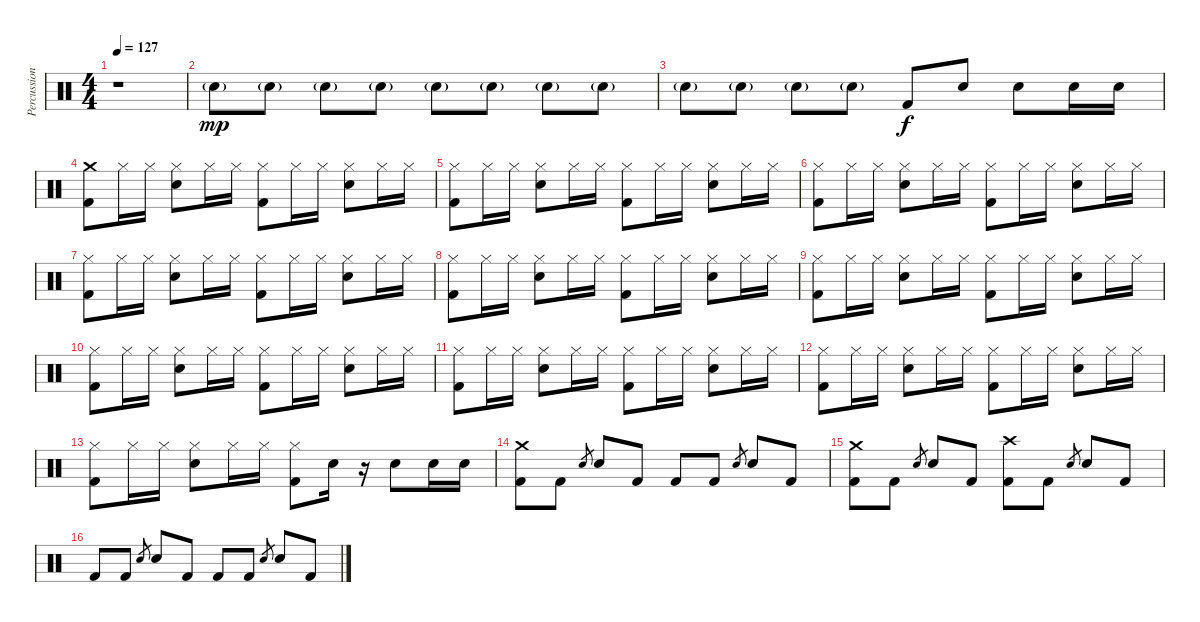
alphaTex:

\track ("Percussion" "Percussion") {instrument percussion}
\staff {score}
\articulation defaults
\ts (4 4)
\tempo 127
\clef neutral
\ks c
r.1{dy f} |
"Electric Snare (hit)"{g}.8{dy mp} "Electric Snare (hit)"{g}.8 "Electric Snare (hit)"{g}.8 "Electric Snare (hit)"{g}.8 "Electric Snare (hit)"{g}.8 "Electric Snare (hit)"{g}.8 "Electric Snare (hit)"{g}.8 "Electric Snare (hit)"{g}.8 |
"Electric Snare (hit)"{g}.8 "Electric Snare (hit)"{g}.8 "Electric Snare (hit)"{g}.8 "Electric Snare (hit)"{g}.8 "Kick (hit) 2".8{dy f} "Electric Snare (hit)".8 "Electric Snare (hit)".8 "Electric Snare (hit)".16 "Electric Snare (hit)".16 |
("Crash medium (hit)" "Kick (hit) 2").8 "Hi-Hat (closed)".16 "Hi-Hat (closed)".16 ("Hi-Hat (closed)" "Electric Snare (hit)").8 "Hi-Hat (closed)".16 "Hi-Hat (closed)".16 ("Hi-Hat (closed)" "Kick (hit) 2").8 "Hi-Hat (closed)".16 "Hi-Hat (closed)".16 ("Hi-Hat (closed)" "Electric Snare (hit)").8 "Hi-Hat (closed)".16 "Hi-Hat (closed)".16 |
("Hi-Hat (closed)" "Kick (hit) 2").8 "Hi-Hat (closed)".16 "Hi-Hat (closed)".16 ("Hi-Hat (closed)" "Electric Snare (hit)").8 "Hi-Hat (closed)".16 "Hi-Hat (closed)".16 ("Hi-Hat (closed)" "Kick (hit) 2").8 "Hi-Hat (closed)".16 "Hi-Hat (closed)".16 ("Hi-Hat (closed)" "Electric Snare (hit)").8 "Hi-Hat (closed)".16 "Hi-Hat (closed)".16 |
("Hi-Hat (closed)" "Kick (hit) 2").8 "Hi-Hat (closed)".16 "Hi-Hat (closed)".16 ("Hi-Hat (closed)" "Electric Snare (hit)").8 "Hi-Hat (closed)".16 "Hi-Hat (closed)".16 ("Hi-Hat (closed)" "Kick (hit) 2").8 "Hi-Hat (closed)".16 "Hi-Hat (closed)".16 ("Hi-Hat (closed)" "Electric Snare (hit)").8 "Hi-Hat (closed)".16 "Hi-Hat (closed)".16 |
("Hi-Hat (closed)" "Kick (hit) 2").8 "Hi-Hat (closed)".16 "Hi-Hat (closed)".16 ("Hi-Hat (closed)" "Electric Snare (hit)").8 "Hi-Hat (closed)".16 "Hi-Hat (closed)".16 ("Hi-Hat (closed)" "Kick (hit) 2").8 "Hi-Hat (closed)".16 "Hi-Hat (closed)".16 ("Hi-Hat (closed)" "Electric Snare (hit)").8 "Hi-Hat (closed)".16 "Hi-Hat (closed)".16 |
("Hi-Hat (closed)" "Kick (hit) 2").8 "Hi-Hat (closed)".16 "Hi-Hat (closed)".16 ("Hi-Hat (closed)" "Electric Snare (hit)").8 "Hi-Hat (closed)".16 "Hi-Hat (closed)".16 ("Hi-Hat (closed)" "Kick (hit) 2").8 "Hi-Hat (closed)".16 "Hi-Hat (closed)".16 ("Hi-Hat (closed)" "Electric Snare (hit)").8 "Hi-Hat (closed)".16 "Hi-Hat (closed)".16 |
("Hi-Hat (closed)" "Kick (hit) 2").8 "Hi-Hat (closed)".16 "Hi-Hat (closed)".16 ("Hi-Hat (closed)" "Electric Snare (hit)").8 "Hi-Hat (closed)".16 "Hi-Hat (closed)".16 ("Hi-Hat (closed)" "Kick (hit) 2").8 "Hi-Hat (closed)".16 "Hi-Hat (closed)".16 ("Hi-Hat (closed)" "Electric Snare (hit)").8 "Hi-Hat (closed)".16 "Hi-Hat (closed)".16 |
("Hi-Hat (closed)" "Kick (hit) 2").8 "Hi-Hat (closed)".16 "Hi-Hat (closed)".16 ("Hi-Hat (closed)" "Electric Snare (hit)").8 "Hi-Hat (closed)".16 "Hi-Hat (closed)".16 ("Hi-Hat (closed)" "Kick (hit) 2").8 "Hi-Hat (closed)".16 "Hi-Hat (closed)".16 ("Hi-Hat (closed)" "Electric Snare (hit)").8 "Hi-Hat (closed)".16 "Hi-Hat (closed)".16 |
("Hi-Hat (closed)" "Kick (hit) 2").8 "Hi-Hat (closed)".16 "Hi-Hat (closed)".16 ("Hi-Hat (closed)" "Electric Snare (hit)").8 "Hi-Hat (closed)".16 "Hi-Hat (closed)".16 ("Hi-Hat (closed)" "Kick (hit) 2").8 "Hi-Hat (closed)".16 "Hi-Hat (closed)".16 ("Hi-Hat (closed)" "Electric Snare (hit)").8 "Hi-Hat (closed)".16 "Hi-Hat (closed)".16 |
("Hi-Hat (closed)" "Kick (hit) 2").8 "Hi-Hat (closed)".16 "Hi-Hat (closed)".16 ("Hi-Hat (closed)" "Electric Snare (hit)").8 "Hi-Hat (closed)".16 "Hi-Hat (closed)".16 ("Hi-Hat (closed)" "Kick (hit) 2").8 "Hi-Hat (closed)".16 "Hi-Hat (closed)".16 ("Hi-Hat (closed)" "Electric Snare (hit)").8 "Hi-Hat (closed)".16 "Hi-Hat (closed)".16 |
("Hi-Hat (closed)" "Kick (hit) 2").8 "Hi-Hat (closed)".16 "Hi-Hat (closed)".16 ("Hi-Hat (closed)" "Electric Snare (hit)").8 "Hi-Hat (closed)".16 "Hi-Hat (closed)".16 ("Hi-Hat (closed)" "Kick (hit) 2").8 "Electric Snare (hit)".16 r.16 "Electric Snare (hit)".8 "Electric Snare (hit)".16 "Electric Snare (hit)".16 |
("Crash medium (hit)" "Kick (hit) 2").8 "Kick (hit) 2".8 "Electric Snare (hit)".8{gr} "Electric Snare (hit)".8 "Kick (hit) 2".8 "Kick (hit) 2".8 "Kick (hit) 2".8 "Electric Snare (hit)".8{gr} "Electric Snare (hit)".8 "Kick (hit) 2".8 |
("Crash medium (hit)" "Kick (hit) 2").8 "Kick (hit) 2".8 "Electric Snare (hit)".8{gr} "Electric Snare (hit)".8 "Kick (hit) 2".8 ("Crash high (hit)" "Kick (hit) 2").8 "Kick (hit) 2".8 "Electric Snare (hit)".8{gr} "Electric Snare (hit)".8 "Kick (hit) 2".8 |
"Kick (hit) 2".8 "Kick (hit) 2".8 "Electric Snare (hit)".8{gr} "Electric Snare (hit)".8 "Kick (hit) 2".8 "Kick (hit) 2".8 "Kick (hit) 2".8 "Electric Snare (hit)".8{gr} "Electric Snare (hit)".8 "Kick (hit) 2".8
